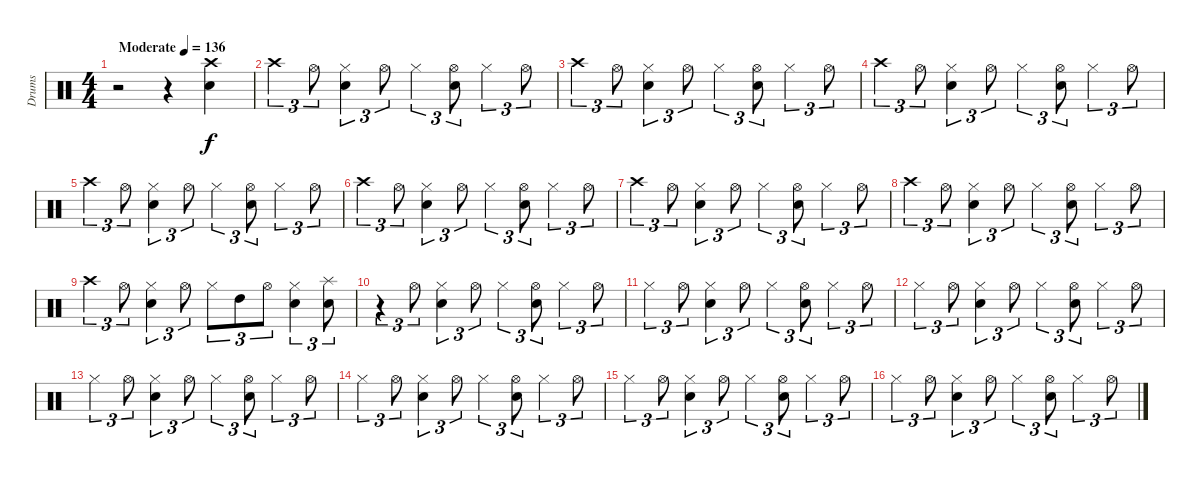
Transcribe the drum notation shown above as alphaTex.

\track ("Drums" "Drums") {instrument percussion}
\staff {score}
\articulation defaults
\ts (4 4)
\tempo (136 "Moderate")
\clef neutral
\ks c
r.2{dy f} r.4 ("Crash high (hit)" "Snare (hit) 2").4 |
"Crash high (hit)".4{tu (3 2)} "Hi-Hat (open)".8{tu (3 2)} ("Hi-Hat (closed)" "Snare (hit) 2").4{tu (3 2)} "Hi-Hat (open)".8{tu (3 2)} "Hi-Hat (closed)".4{tu (3 2)} ("Hi-Hat (open)" "Snare (hit) 2").8{tu (3 2)} "Hi-Hat (closed)".4{tu (3 2)} "Hi-Hat (open)".8{tu (3 2)} |
"Crash high (hit)".4{tu (3 2)} "Hi-Hat (open)".8{tu (3 2)} ("Hi-Hat (closed)" "Snare (hit) 2").4{tu (3 2)} "Hi-Hat (open)".8{tu (3 2)} "Hi-Hat (closed)".4{tu (3 2)} ("Hi-Hat (open)" "Snare (hit) 2").8{tu (3 2)} "Hi-Hat (closed)".4{tu (3 2)} "Hi-Hat (open)".8{tu (3 2)} |
"Crash high (hit)".4{tu (3 2)} "Hi-Hat (open)".8{tu (3 2)} ("Hi-Hat (closed)" "Snare (hit) 2").4{tu (3 2)} "Hi-Hat (open)".8{tu (3 2)} "Hi-Hat (closed)".4{tu (3 2)} ("Hi-Hat (open)" "Snare (hit) 2").8{tu (3 2)} "Hi-Hat (closed)".4{tu (3 2)} "Hi-Hat (open)".8{tu (3 2)} |
"Crash high (hit)".4{tu (3 2)} "Hi-Hat (open)".8{tu (3 2)} ("Hi-Hat (closed)" "Snare (hit) 2").4{tu (3 2)} "Hi-Hat (open)".8{tu (3 2)} "Hi-Hat (closed)".4{tu (3 2)} ("Hi-Hat (open)" "Snare (hit) 2").8{tu (3 2)} "Hi-Hat (closed)".4{tu (3 2)} "Hi-Hat (open)".8{tu (3 2)} |
"Crash high (hit)".4{tu (3 2)} "Hi-Hat (open)".8{tu (3 2)} ("Hi-Hat (closed)" "Snare (hit) 2").4{tu (3 2)} "Hi-Hat (open)".8{tu (3 2)} "Hi-Hat (closed)".4{tu (3 2)} ("Hi-Hat (open)" "Snare (hit) 2").8{tu (3 2)} "Hi-Hat (closed)".4{tu (3 2)} "Hi-Hat (open)".8{tu (3 2)} |
"Crash high (hit)".4{tu (3 2)} "Hi-Hat (open)".8{tu (3 2)} ("Hi-Hat (closed)" "Snare (hit) 2").4{tu (3 2)} "Hi-Hat (open)".8{tu (3 2)} "Hi-Hat (closed)".4{tu (3 2)} ("Hi-Hat (open)" "Snare (hit) 2").8{tu (3 2)} "Hi-Hat (closed)".4{tu (3 2)} "Hi-Hat (open)".8{tu (3 2)} |
"Crash high (hit)".4{tu (3 2)} "Hi-Hat (open)".8{tu (3 2)} ("Hi-Hat (closed)" "Snare (hit) 2").4{tu (3 2)} "Hi-Hat (open)".8{tu (3 2)} "Hi-Hat (closed)".4{tu (3 2)} ("Hi-Hat (open)" "Snare (hit) 2").8{tu (3 2)} "Hi-Hat (closed)".4{tu (3 2)} "Hi-Hat (open)".8{tu (3 2)} |
"Crash high (hit)".4{tu (3 2)} "Hi-Hat (open)".8{tu (3 2)} ("Hi-Hat (closed)" "Snare (hit) 2").4{tu (3 2)} "Hi-Hat (open)".8{tu (3 2)} "Hi-Hat (closed)".8{tu (3 2)} "High Tom (hit)".8{tu (3 2)} "Hi-Hat (open)".8{tu (3 2)} ("Hi-Hat (closed)" "Snare (hit) 2").4{tu (3 2)} ("Splash (hit)" "Snare (hit) 2").8{tu (3 2)} |
r.4{tu (3 2)} "Hi-Hat (open)".8{tu (3 2)} ("Hi-Hat (closed)" "Snare (hit) 2").4{tu (3 2)} "Hi-Hat (open)".8{tu (3 2)} "Hi-Hat (closed)".4{tu (3 2)} ("Hi-Hat (open)" "Snare (hit) 2").8{tu (3 2)} "Hi-Hat (closed)".4{tu (3 2)} "Hi-Hat (open)".8{tu (3 2)} |
"Hi-Hat (closed)".4{tu (3 2)} "Hi-Hat (open)".8{tu (3 2)} ("Hi-Hat (closed)" "Snare (hit) 2").4{tu (3 2)} "Hi-Hat (open)".8{tu (3 2)} "Hi-Hat (closed)".4{tu (3 2)} ("Hi-Hat (open)" "Snare (hit) 2").8{tu (3 2)} "Hi-Hat (closed)".4{tu (3 2)} "Hi-Hat (open)".8{tu (3 2)} |
"Hi-Hat (closed)".4{tu (3 2)} "Hi-Hat (open)".8{tu (3 2)} ("Hi-Hat (closed)" "Snare (hit) 2").4{tu (3 2)} "Hi-Hat (open)".8{tu (3 2)} "Hi-Hat (closed)".4{tu (3 2)} ("Hi-Hat (open)" "Snare (hit) 2").8{tu (3 2)} "Hi-Hat (closed)".4{tu (3 2)} "Hi-Hat (open)".8{tu (3 2)} |
"Hi-Hat (closed)".4{tu (3 2)} "Hi-Hat (open)".8{tu (3 2)} ("Hi-Hat (closed)" "Snare (hit) 2").4{tu (3 2)} "Hi-Hat (open)".8{tu (3 2)} "Hi-Hat (closed)".4{tu (3 2)} ("Hi-Hat (open)" "Snare (hit) 2").8{tu (3 2)} "Hi-Hat (closed)".4{tu (3 2)} "Hi-Hat (open)".8{tu (3 2)} |
"Hi-Hat (closed)".4{tu (3 2)} "Hi-Hat (open)".8{tu (3 2)} ("Hi-Hat (closed)" "Snare (hit) 2").4{tu (3 2)} "Hi-Hat (open)".8{tu (3 2)} "Hi-Hat (closed)".4{tu (3 2)} ("Hi-Hat (open)" "Snare (hit) 2").8{tu (3 2)} "Hi-Hat (closed)".4{tu (3 2)} "Hi-Hat (open)".8{tu (3 2)} |
"Hi-Hat (closed)".4{tu (3 2)} "Hi-Hat (open)".8{tu (3 2)} ("Hi-Hat (closed)" "Snare (hit) 2").4{tu (3 2)} "Hi-Hat (open)".8{tu (3 2)} "Hi-Hat (closed)".4{tu (3 2)} ("Hi-Hat (open)" "Snare (hit) 2").8{tu (3 2)} "Hi-Hat (closed)".4{tu (3 2)} "Hi-Hat (open)".8{tu (3 2)} |
"Hi-Hat (closed)".4{tu (3 2)} "Hi-Hat (open)".8{tu (3 2)} ("Hi-Hat (closed)" "Snare (hit) 2").4{tu (3 2)} "Hi-Hat (open)".8{tu (3 2)} "Hi-Hat (closed)".4{tu (3 2)} ("Hi-Hat (open)" "Snare (hit) 2").8{tu (3 2)} "Hi-Hat (closed)".4{tu (3 2)} "Hi-Hat (open)".8{tu (3 2)}
